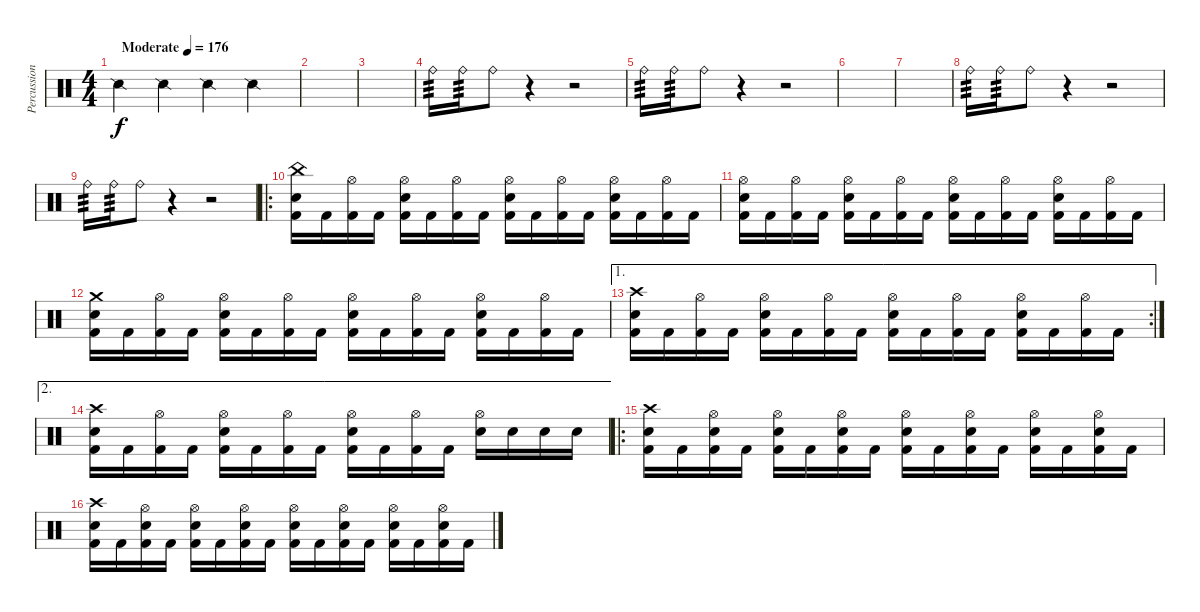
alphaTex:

\track ("Percussion" "Percussion") {instrument percussion}
\staff {score}
\articulation defaults
\ts (4 4)
\tempo (176 "Moderate")
\clef neutral
\ks c "Snare (side stick) 2".4{dy f} "Snare (side stick) 2".4 "Snare (side stick) 2".4 "Snare (side stick) 2".4
|
|
|
"Ride (bell)".16{tp 3} "Ride (bell)".16{tp 3} "Ride (bell)".8 r.4 r.2 |
"Ride (bell)".16{tp 3} "Ride (bell)".16{tp 3} "Ride (bell)".8 r.4 r.2 |
|
|
"Ride (bell)".16{tp 3} "Ride (bell)".16{tp 3} "Ride (bell)".8 r.4 r.2 |
"Ride (bell)".16{tp 3} "Ride (bell)".16{tp 3} "Ride (bell)".8 r.4 r.2 |
\ro
("China (hit)" "Electric Snare (hit)" "Kick (hit) 2").16 "Kick (hit) 2".16 ("Hi-Hat (open)" "Kick (hit) 2").16 "Kick (hit) 2".16 ("Hi-Hat (open)" "Electric Snare (hit)" "Kick (hit) 2").16 "Kick (hit) 2".16 ("Hi-Hat (open)" "Kick (hit) 2").16 "Kick (hit) 2".16 ("Hi-Hat (open)" "Electric Snare (hit)" "Kick (hit) 2").16 "Kick (hit) 2".16 ("Hi-Hat (open)" "Kick (hit) 2").16 "Kick (hit) 2".16 ("Hi-Hat (open)" "Electric Snare (hit)" "Kick (hit) 2").16 "Kick (hit) 2".16 ("Hi-Hat (open)" "Kick (hit) 2").16 "Kick (hit) 2".16 |
("Hi-Hat (open)" "Electric Snare (hit)" "Kick (hit) 2").16 "Kick (hit) 2".16 ("Hi-Hat (open)" "Kick (hit) 2").16 "Kick (hit) 2".16 ("Hi-Hat (open)" "Electric Snare (hit)" "Kick (hit) 2").16 "Kick (hit) 2".16 ("Hi-Hat (open)" "Kick (hit) 2").16 "Kick (hit) 2".16 ("Hi-Hat (open)" "Electric Snare (hit)" "Kick (hit) 2").16 "Kick (hit) 2".16 ("Hi-Hat (open)" "Kick (hit) 2").16 "Kick (hit) 2".16 ("Hi-Hat (open)" "Electric Snare (hit)" "Kick (hit) 2").16 "Kick (hit) 2".16 ("Hi-Hat (open)" "Kick (hit) 2").16 "Kick (hit) 2".16 |
("Crash medium (hit)" "Electric Snare (hit)" "Kick (hit) 2").16 "Kick (hit) 2".16 ("Hi-Hat (open)" "Kick (hit) 2").16 "Kick (hit) 2".16 ("Hi-Hat (open)" "Electric Snare (hit)" "Kick (hit) 2").16 "Kick (hit) 2".16 ("Hi-Hat (open)" "Kick (hit) 2").16 "Kick (hit) 2".16 ("Hi-Hat (open)" "Electric Snare (hit)" "Kick (hit) 2").16 "Kick (hit) 2".16 ("Hi-Hat (open)" "Kick (hit) 2").16 "Kick (hit) 2".16 ("Hi-Hat (open)" "Electric Snare (hit)" "Kick (hit) 2").16 "Kick (hit) 2".16 ("Hi-Hat (open)" "Kick (hit) 2").16 "Kick (hit) 2".16 |
\ae 1
\rc 2
("Crash high (hit)" "Electric Snare (hit)" "Kick (hit) 2").16 "Kick (hit) 2".16 ("Hi-Hat (open)" "Kick (hit) 2").16 "Kick (hit) 2".16 ("Hi-Hat (open)" "Electric Snare (hit)" "Kick (hit) 2").16 "Kick (hit) 2".16 ("Hi-Hat (open)" "Kick (hit) 2").16 "Kick (hit) 2".16 ("Hi-Hat (open)" "Electric Snare (hit)" "Kick (hit) 2").16 "Kick (hit) 2".16 ("Hi-Hat (open)" "Kick (hit) 2").16 "Kick (hit) 2".16 ("Hi-Hat (open)" "Electric Snare (hit)" "Kick (hit) 2").16 "Kick (hit) 2".16 ("Hi-Hat (open)" "Kick (hit) 2").16 "Kick (hit) 2".16 |
\ae 2
("Crash high (hit)" "Electric Snare (hit)" "Kick (hit) 2").16 "Kick (hit) 2".16 ("Hi-Hat (open)" "Kick (hit) 2").16 "Kick (hit) 2".16 ("Hi-Hat (open)" "Electric Snare (hit)" "Kick (hit) 2").16 "Kick (hit) 2".16 ("Hi-Hat (open)" "Kick (hit) 2").16 "Kick (hit) 2".16 ("Hi-Hat (open)" "Electric Snare (hit)" "Kick (hit) 2").16 "Kick (hit) 2".16 ("Hi-Hat (open)" "Kick (hit) 2").16 "Kick (hit) 2".16 ("Hi-Hat (open)" "Electric Snare (hit)").16 "Electric Snare (hit)".16 "Electric Snare (hit)".16 "Electric Snare (hit)".16 |
\ro
("Crash high (hit)" "Electric Snare (hit)" "Kick (hit) 2").16 "Kick (hit) 2".16 ("Hi-Hat (open)" "Electric Snare (hit)" "Kick (hit) 2").16 "Kick (hit) 2".16 ("Hi-Hat (open)" "Electric Snare (hit)" "Kick (hit) 2").16 "Kick (hit) 2".16 ("Hi-Hat (open)" "Electric Snare (hit)" "Kick (hit) 2").16 "Kick (hit) 2".16 ("Hi-Hat (open)" "Electric Snare (hit)" "Kick (hit) 2").16 "Kick (hit) 2".16 ("Hi-Hat (open)" "Electric Snare (hit)" "Kick (hit) 2").16 "Kick (hit) 2".16 ("Hi-Hat (open)" "Electric Snare (hit)" "Kick (hit) 2").16 "Kick (hit) 2".16 ("Hi-Hat (open)" "Electric Snare (hit)" "Kick (hit) 2").16 "Kick (hit) 2".16 |
("Crash high (hit)" "Electric Snare (hit)" "Kick (hit) 2").16 "Kick (hit) 2".16 ("Hi-Hat (open)" "Electric Snare (hit)" "Kick (hit) 2").16 "Kick (hit) 2".16 ("Hi-Hat (open)" "Electric Snare (hit)" "Kick (hit) 2").16 "Kick (hit) 2".16 ("Hi-Hat (open)" "Electric Snare (hit)" "Kick (hit) 2").16 "Kick (hit) 2".16 ("Hi-Hat (open)" "Electric Snare (hit)" "Kick (hit) 2").16 "Kick (hit) 2".16 ("Hi-Hat (open)" "Electric Snare (hit)" "Kick (hit) 2").16 "Kick (hit) 2".16 ("Hi-Hat (open)" "Electric Snare (hit)" "Kick (hit) 2").16 "Kick (hit) 2".16 ("Hi-Hat (open)" "Electric Snare (hit)" "Kick (hit) 2").16 "Kick (hit) 2".16
